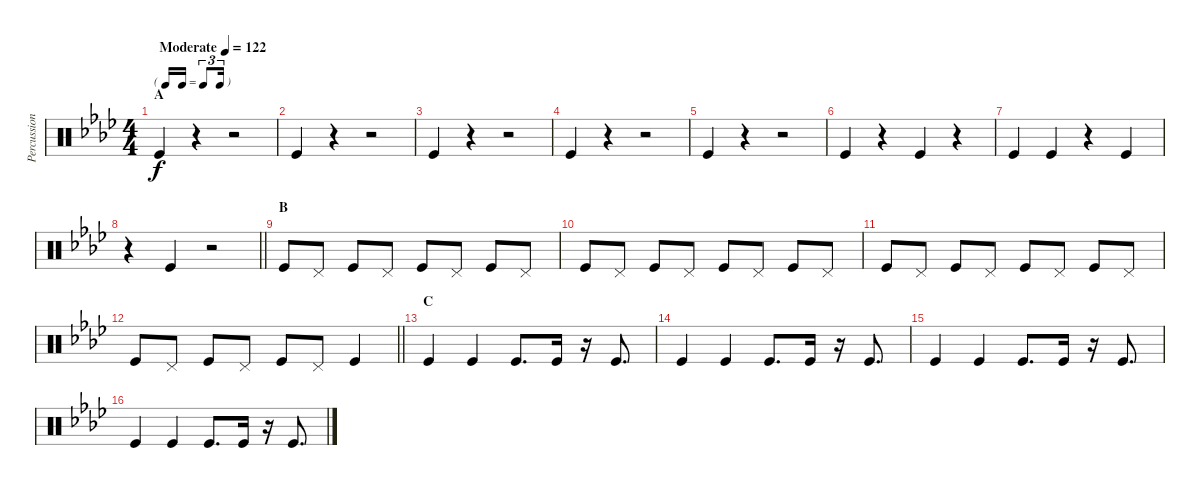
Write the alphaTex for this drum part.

\track ("Percussion Foot" "Percussion") {instrument percussion}
\staff {score}
\articulation defaults
\ts (4 4)
\tf triplet16th
\section ("" "A")
\tempo (122 "Moderate")
\clef neutral
\ks ab "Kick (hit)".4{dy f}
r.4 r.2 |
"Kick (hit)".4 r.4 r.2 |
"Kick (hit)".4 r.4 r.2 |
"Kick (hit)".4 r.4 r.2 |
"Kick (hit)".4 r.4 r.2 |
"Kick (hit)".4 r.4 "Kick (hit)".4 r.4 |
"Kick (hit)".4 "Kick (hit)".4 r.4 "Kick (hit)".4 |
\barLineRight lightlight
r.4 "Kick (hit)".4 r.2 |
\section ("" "B")
"Kick (hit)".8 "Pedal Hi-Hat (hit)".8 "Kick (hit)".8 "Pedal Hi-Hat (hit)".8 "Kick (hit)".8 "Pedal Hi-Hat (hit)".8 "Kick (hit)".8 "Pedal Hi-Hat (hit)".8 |
"Kick (hit)".8 "Pedal Hi-Hat (hit)".8 "Kick (hit)".8 "Pedal Hi-Hat (hit)".8 "Kick (hit)".8 "Pedal Hi-Hat (hit)".8 "Kick (hit)".8 "Pedal Hi-Hat (hit)".8 |
"Kick (hit)".8 "Pedal Hi-Hat (hit)".8 "Kick (hit)".8 "Pedal Hi-Hat (hit)".8 "Kick (hit)".8 "Pedal Hi-Hat (hit)".8 "Kick (hit)".8 "Pedal Hi-Hat (hit)".8 |
\barLineRight lightlight "Kick (hit)".8 "Pedal Hi-Hat (hit)".8 "Kick (hit)".8 "Pedal Hi-Hat (hit)".8 "Kick (hit)".8 "Pedal Hi-Hat (hit)".8 "Kick (hit)".4
|
\section ("" "C")
"Kick (hit)".4 "Kick (hit)".4 "Kick (hit)".8{d} "Kick (hit)".16 r.16 "Kick (hit)".8{d} |
"Kick (hit)".4 "Kick (hit)".4 "Kick (hit)".8{d} "Kick (hit)".16 r.16 "Kick (hit)".8{d} |
"Kick (hit)".4 "Kick (hit)".4 "Kick (hit)".8{d} "Kick (hit)".16 r.16 "Kick (hit)".8{d} |
"Kick (hit)".4 "Kick (hit)".4 "Kick (hit)".8{d} "Kick (hit)".16 r.16 "Kick (hit)".8{d}
